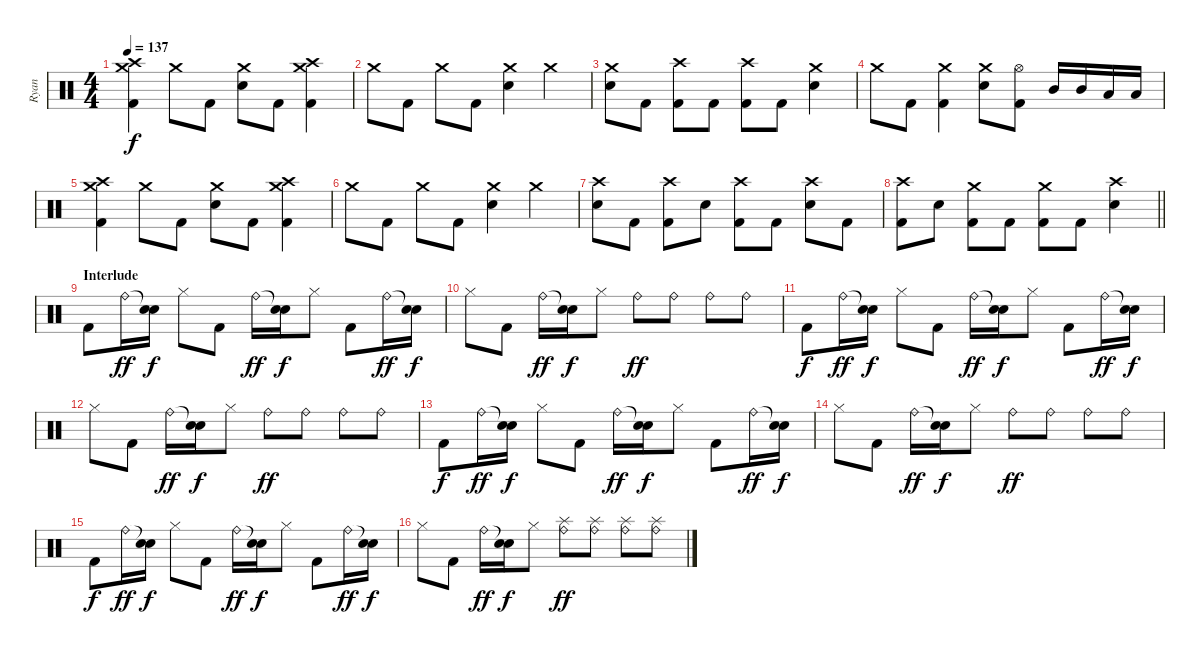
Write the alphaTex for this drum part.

\track ("Ryan" "Ryan") {instrument percussion}
\staff {score}
\articulation defaults
\ts (4 4)
\tempo 137
\clef neutral
\ks c
("Crash medium (hit)" "Crash high (hit)" "Kick (hit) 2").4{dy f} "Crash medium (hit)".8 "Kick (hit) 2".8 ("Crash medium (hit)" "Electric Snare (hit)").8 "Kick (hit) 2".8 ("Crash medium (hit)" "Crash high (hit)" "Kick (hit) 2").4 |
"Crash medium (hit)".8 "Kick (hit) 2".8 "Crash medium (hit)".8 "Kick (hit) 2".8 ("Crash medium (hit)" "Electric Snare (hit)").4 "Crash medium (hit)".4 |
("Crash medium (hit)" "Electric Snare (hit)").8 "Kick (hit) 2".8 ("Crash high (hit)" "Kick (hit) 2").8 "Kick (hit) 2".8 ("Crash high (hit)" "Kick (hit) 2").8 "Kick (hit) 2".8 ("Crash medium (hit)" "Electric Snare (hit)").4 |
"Crash medium (hit)".8 "Kick (hit) 2".8 ("Crash medium (hit)" "Kick (hit) 2").4 ("Crash medium (hit)" "Electric Snare (hit)").8 ("Hi-Hat (open)" "Kick (hit) 2").8 "Mid Tom (hit)".16 "Mid Tom (hit)".16 "Low Tom (hit)".16 "Low Tom (hit)".16 |
("Crash medium (hit)" "Crash high (hit)" "Kick (hit) 2").4 "Crash medium (hit)".8 "Kick (hit) 2".8 ("Crash medium (hit)" "Electric Snare (hit)").8 "Kick (hit) 2".8 ("Crash medium (hit)" "Crash high (hit)" "Kick (hit) 2").4 |
"Crash medium (hit)".8 "Kick (hit) 2".8 "Crash medium (hit)".8 "Kick (hit) 2".8 ("Crash medium (hit)" "Electric Snare (hit)").4 "Crash medium (hit)".4 |
("Crash high (hit)" "Electric Snare (hit)").8 "Kick (hit) 2".8 ("Crash high (hit)" "Kick (hit) 2").8 "Electric Snare (hit)".8 ("Crash high (hit)" "Kick (hit) 2").8 "Kick (hit) 2".8 ("Crash high (hit)" "Electric Snare (hit)").8 "Kick (hit) 2".8 |
\barLineRight lightlight
("Crash high (hit)" "Kick (hit) 2").8 "Electric Snare (hit)".8 ("Crash medium (hit)" "Kick (hit) 2").8 "Kick (hit) 2".8 ("Crash medium (hit)" "Kick (hit) 2").8 "Kick (hit) 2".8 ("Crash high (hit)" "Electric Snare (hit)").4 |
\section ("" "Interlude")
"Kick (hit) 2".8 "Ride (bell)".16{dy ff} ("Snare (hit)"{t} "Electric Snare (hit)").16{dy f} "Hi-Hat (closed)".8 "Kick (hit) 2".8 "Ride (bell)".16{dy ff} ("Snare (hit)"{t} "Electric Snare (hit)").16{dy f} "Hi-Hat (closed)".8 "Kick (hit) 2".8 "Ride (bell)".16{dy ff} ("Snare (hit)"{t} "Electric Snare (hit)").16{dy f} |
"Hi-Hat (closed)".8 "Kick (hit) 2".8 "Ride (bell)".16{dy ff} ("Snare (hit)"{t} "Electric Snare (hit)").16{dy f} "Hi-Hat (closed)".8 "Ride (bell)".8{dy ff} "Ride (bell)".8 "Ride (bell)".8 "Ride (bell)".8 |
"Kick (hit) 2".8{dy f} "Ride (bell)".16{dy ff} ("Snare (hit)"{t} "Electric Snare (hit)").16{dy f} "Hi-Hat (closed)".8 "Kick (hit) 2".8 "Ride (bell)".16{dy ff} ("Snare (hit)"{t} "Electric Snare (hit)").16{dy f} "Hi-Hat (closed)".8 "Kick (hit) 2".8 "Ride (bell)".16{dy ff} ("Snare (hit)"{t} "Electric Snare (hit)").16{dy f} |
"Hi-Hat (closed)".8 "Kick (hit) 2".8 "Ride (bell)".16{dy ff} ("Snare (hit)"{t} "Electric Snare (hit)").16{dy f} "Hi-Hat (closed)".8 "Ride (bell)".8{dy ff} "Ride (bell)".8 "Ride (bell)".8 "Ride (bell)".8 |
"Kick (hit) 2".8{dy f} "Ride (bell)".16{dy ff} ("Snare (hit)"{t} "Electric Snare (hit)").16{dy f} "Hi-Hat (closed)".8 "Kick (hit) 2".8 "Ride (bell)".16{dy ff} ("Snare (hit)"{t} "Electric Snare (hit)").16{dy f} "Hi-Hat (closed)".8 "Kick (hit) 2".8 "Ride (bell)".16{dy ff} ("Snare (hit)"{t} "Electric Snare (hit)").16{dy f} |
"Hi-Hat (closed)".8 "Kick (hit) 2".8 "Ride (bell)".16{dy ff} ("Snare (hit)"{t} "Electric Snare (hit)").16{dy f} "Hi-Hat (closed)".8 "Ride (bell)".8{dy ff} "Ride (bell)".8 "Ride (bell)".8 "Ride (bell)".8 |
"Kick (hit) 2".8{dy f} "Ride (bell)".16{dy ff} ("Snare (hit)"{t} "Electric Snare (hit)").16{dy f} "Hi-Hat (closed)".8 "Kick (hit) 2".8 "Ride (bell)".16{dy ff} ("Snare (hit)"{t} "Electric Snare (hit)").16{dy f} "Hi-Hat (closed)".8 "Kick (hit) 2".8 "Ride (bell)".16{dy ff} ("Snare (hit)"{t} "Electric Snare (hit)").16{dy f} |
"Hi-Hat (closed)".8 "Kick (hit) 2".8 "Ride (bell)".16{dy ff} ("Snare (hit)"{t} "Electric Snare (hit)").16{dy f} "Hi-Hat (closed)".8 ("Splash (hit)" "Ride (bell)").8{dy ff} ("Splash (hit)" "Ride (bell)").8 ("Splash (hit)" "Ride (bell)").8 ("Splash (hit)" "Ride (bell)").8
